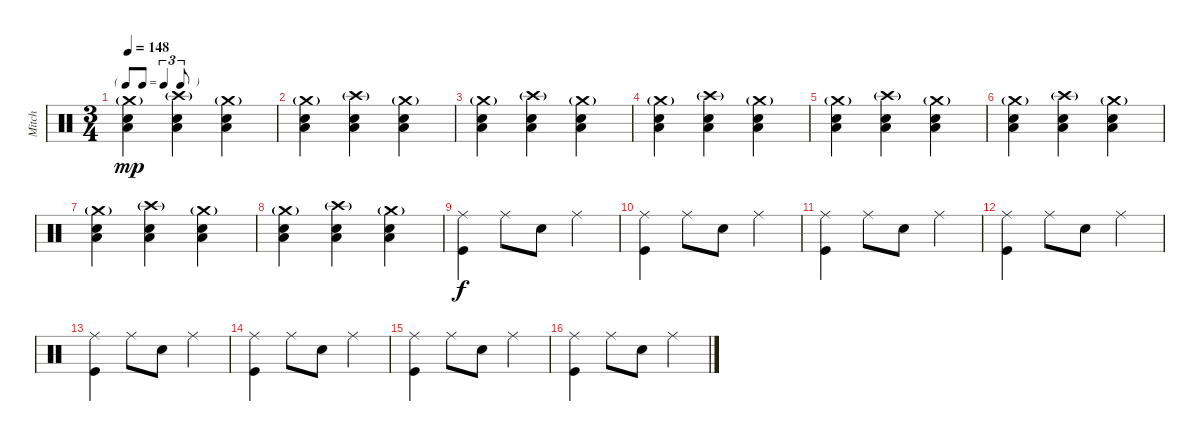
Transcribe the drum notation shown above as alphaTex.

\track ("Mitch" "Mitch") {instrument percussion}
\staff {score}
\articulation defaults
\ts (3 4)
\tf triplet8th
\tempo 148
\clef neutral
\ks c
("Snare (hit) 2" "Crash medium (hit)"{g} "Low Tom (hit)").4{dy mp} ("Snare (hit) 2" "Crash high (hit)"{g} "Low Tom (hit)").4 ("Snare (hit) 2" "Crash medium (hit)"{g} "Low Tom (hit)").4 |
("Snare (hit) 2" "Crash medium (hit)"{g} "Low Tom (hit)").4 ("Snare (hit) 2" "Crash high (hit)"{g} "Low Tom (hit)").4 ("Snare (hit) 2" "Crash medium (hit)"{g} "Low Tom (hit)").4 |
("Snare (hit) 2" "Crash medium (hit)"{g} "Low Tom (hit)").4 ("Snare (hit) 2" "Crash high (hit)"{g} "Low Tom (hit)").4 ("Snare (hit) 2" "Crash medium (hit)"{g} "Low Tom (hit)").4 |
("Snare (hit) 2" "Crash medium (hit)"{g} "Low Tom (hit)").4 ("Snare (hit) 2" "Crash high (hit)"{g} "Low Tom (hit)").4 ("Snare (hit) 2" "Crash medium (hit)"{g} "Low Tom (hit)").4 |
("Snare (hit) 2" "Crash medium (hit)"{g} "Low Tom (hit)").4 ("Snare (hit) 2" "Crash high (hit)"{g} "Low Tom (hit)").4 ("Snare (hit) 2" "Crash medium (hit)"{g} "Low Tom (hit)").4 |
("Snare (hit) 2" "Crash medium (hit)"{g} "Low Tom (hit)").4 ("Snare (hit) 2" "Crash high (hit)"{g} "Low Tom (hit)").4 ("Snare (hit) 2" "Crash medium (hit)"{g} "Low Tom (hit)").4 |
("Snare (hit) 2" "Crash medium (hit)"{g} "Low Tom (hit)").4 ("Snare (hit) 2" "Crash high (hit)"{g} "Low Tom (hit)").4 ("Snare (hit) 2" "Crash medium (hit)"{g} "Low Tom (hit)").4 |
("Snare (hit) 2" "Crash medium (hit)"{g} "Low Tom (hit)").4 ("Snare (hit) 2" "Crash high (hit)"{g} "Low Tom (hit)").4 ("Snare (hit) 2" "Crash medium (hit)"{g} "Low Tom (hit)").4 |
("Ride (middle)" "Kick (hit)").4{dy f} "Ride (middle)".8 "Snare (hit) 2".8 "Ride (middle)".4 |
("Ride (middle)" "Kick (hit)").4 "Ride (middle)".8 "Snare (hit) 2".8 "Ride (middle)".4 |
("Ride (middle)" "Kick (hit)").4 "Ride (middle)".8 "Snare (hit) 2".8 "Ride (middle)".4 |
("Ride (middle)" "Kick (hit)").4 "Ride (middle)".8 "Snare (hit) 2".8 "Ride (middle)".4 |
("Ride (middle)" "Kick (hit)").4 "Ride (middle)".8 "Snare (hit) 2".8 "Ride (middle)".4 |
("Ride (middle)" "Kick (hit)").4 "Ride (middle)".8 "Snare (hit) 2".8 "Ride (middle)".4 |
("Ride (middle)" "Kick (hit)").4 "Ride (middle)".8 "Snare (hit) 2".8 "Ride (middle)".4 |
("Ride (middle)" "Kick (hit)").4 "Ride (middle)".8 "Snare (hit) 2".8 "Ride (middle)".4
